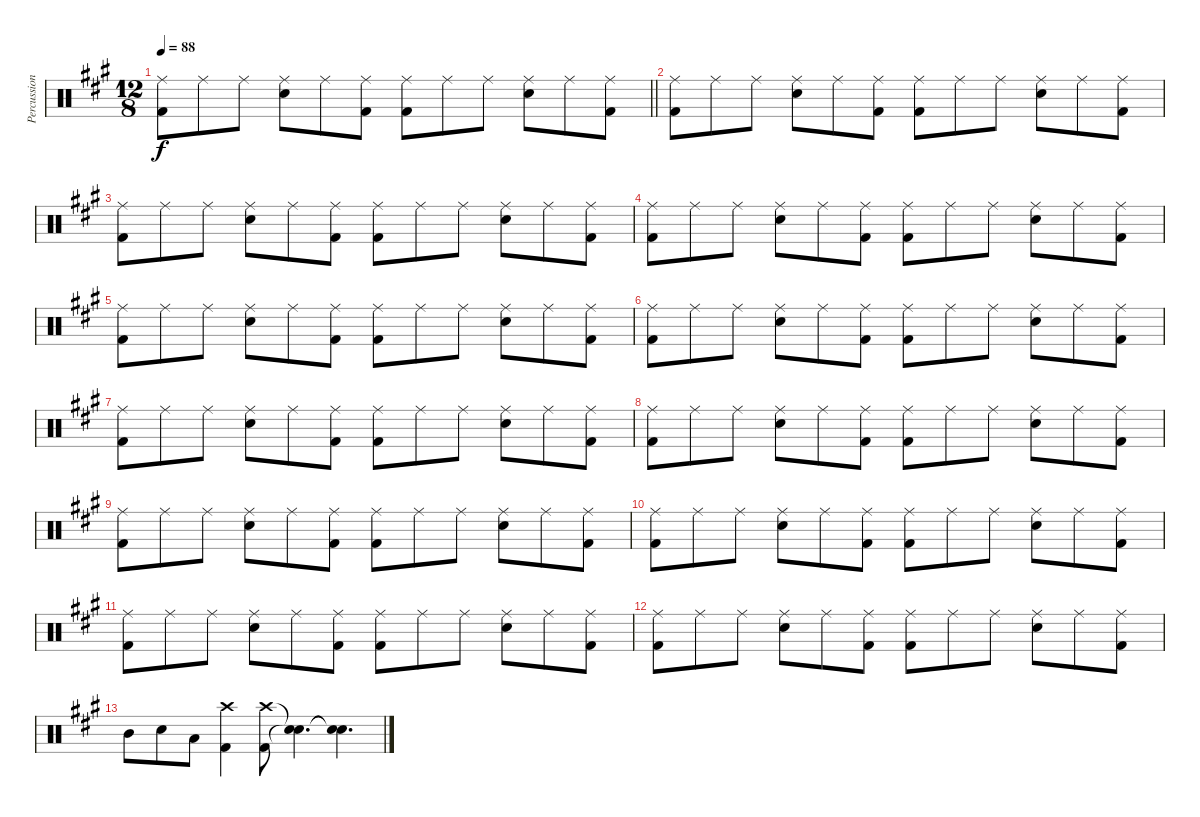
\track ("Percussion" "Percussion") {instrument percussion}
\staff {score}
\articulation defaults
\ts (12 8)
\tempo 88
\clef neutral
\barLineRight lightlight
\ks a
("Ride (middle)" "Kick (hit) 2").8{dy f} "Ride (middle)".8 "Ride (middle)".8 ("Ride (middle)" "Snare (hit) 2").8 "Ride (middle)".8 ("Ride (middle)" "Kick (hit) 2").8 ("Ride (middle)" "Kick (hit) 2").8 "Ride (middle)".8 "Ride (middle)".8 ("Ride (middle)" "Snare (hit) 2").8 "Ride (middle)".8 ("Ride (middle)" "Kick (hit) 2").8 |
("Ride (middle)" "Kick (hit) 2").8 "Ride (middle)".8 "Ride (middle)".8 ("Ride (middle)" "Snare (hit) 2").8 "Ride (middle)".8 ("Ride (middle)" "Kick (hit) 2").8 ("Ride (middle)" "Kick (hit) 2").8 "Ride (middle)".8 "Ride (middle)".8 ("Ride (middle)" "Snare (hit) 2").8 "Ride (middle)".8 ("Ride (middle)" "Kick (hit) 2").8 |
("Ride (middle)" "Kick (hit) 2").8 "Ride (middle)".8 "Ride (middle)".8 ("Ride (middle)" "Snare (hit) 2").8 "Ride (middle)".8 ("Ride (middle)" "Kick (hit) 2").8 ("Ride (middle)" "Kick (hit) 2").8 "Ride (middle)".8 "Ride (middle)".8 ("Ride (middle)" "Snare (hit) 2").8 "Ride (middle)".8 ("Ride (middle)" "Kick (hit) 2").8 |
("Ride (middle)" "Kick (hit) 2").8 "Ride (middle)".8 "Ride (middle)".8 ("Ride (middle)" "Snare (hit) 2").8 "Ride (middle)".8 ("Ride (middle)" "Kick (hit) 2").8 ("Ride (middle)" "Kick (hit) 2").8 "Ride (middle)".8 "Ride (middle)".8 ("Ride (middle)" "Snare (hit) 2").8 "Ride (middle)".8 ("Ride (middle)" "Kick (hit) 2").8 |
("Ride (middle)" "Kick (hit) 2").8 "Ride (middle)".8 "Ride (middle)".8 ("Ride (middle)" "Snare (hit) 2").8 "Ride (middle)".8 ("Ride (middle)" "Kick (hit) 2").8 ("Ride (middle)" "Kick (hit) 2").8 "Ride (middle)".8 "Ride (middle)".8 ("Ride (middle)" "Snare (hit) 2").8 "Ride (middle)".8 ("Ride (middle)" "Kick (hit) 2").8 |
("Ride (middle)" "Kick (hit) 2").8 "Ride (middle)".8 "Ride (middle)".8 ("Ride (middle)" "Snare (hit) 2").8 "Ride (middle)".8 ("Ride (middle)" "Kick (hit) 2").8 ("Ride (middle)" "Kick (hit) 2").8 "Ride (middle)".8 "Ride (middle)".8 ("Ride (middle)" "Snare (hit) 2").8 "Ride (middle)".8 ("Ride (middle)" "Kick (hit) 2").8 |
("Ride (middle)" "Kick (hit) 2").8 "Ride (middle)".8 "Ride (middle)".8 ("Ride (middle)" "Snare (hit) 2").8 "Ride (middle)".8 ("Ride (middle)" "Kick (hit) 2").8 ("Ride (middle)" "Kick (hit) 2").8 "Ride (middle)".8 "Ride (middle)".8 ("Ride (middle)" "Snare (hit) 2").8 "Ride (middle)".8 ("Ride (middle)" "Kick (hit) 2").8 |
("Ride (middle)" "Kick (hit) 2").8 "Ride (middle)".8 "Ride (middle)".8 ("Ride (middle)" "Snare (hit) 2").8 "Ride (middle)".8 ("Ride (middle)" "Kick (hit) 2").8 ("Ride (middle)" "Kick (hit) 2").8 "Ride (middle)".8 "Ride (middle)".8 ("Ride (middle)" "Snare (hit) 2").8 "Ride (middle)".8 ("Ride (middle)" "Kick (hit) 2").8 |
("Ride (middle)" "Kick (hit) 2").8 "Ride (middle)".8 "Ride (middle)".8 ("Ride (middle)" "Snare (hit) 2").8 "Ride (middle)".8 ("Ride (middle)" "Kick (hit) 2").8 ("Ride (middle)" "Kick (hit) 2").8 "Ride (middle)".8 "Ride (middle)".8 ("Ride (middle)" "Snare (hit) 2").8 "Ride (middle)".8 ("Ride (middle)" "Kick (hit) 2").8 |
("Ride (middle)" "Kick (hit) 2").8 "Ride (middle)".8 "Ride (middle)".8 ("Ride (middle)" "Snare (hit) 2").8 "Ride (middle)".8 ("Ride (middle)" "Kick (hit) 2").8 ("Ride (middle)" "Kick (hit) 2").8 "Ride (middle)".8 "Ride (middle)".8 ("Ride (middle)" "Snare (hit) 2").8 "Ride (middle)".8 ("Ride (middle)" "Kick (hit) 2").8 |
("Ride (middle)" "Kick (hit) 2").8 "Ride (middle)".8 "Ride (middle)".8 ("Ride (middle)" "Snare (hit) 2").8 "Ride (middle)".8 ("Ride (middle)" "Kick (hit) 2").8 ("Ride (middle)" "Kick (hit) 2").8 "Ride (middle)".8 "Ride (middle)".8 ("Ride (middle)" "Snare (hit) 2").8 "Ride (middle)".8 ("Ride (middle)" "Kick (hit) 2").8 |
("Ride (middle)" "Kick (hit) 2").8 "Ride (middle)".8 "Ride (middle)".8 ("Ride (middle)" "Snare (hit) 2").8 "Ride (middle)".8 ("Ride (middle)" "Kick (hit) 2").8 ("Ride (middle)" "Kick (hit) 2").8 "Ride (middle)".8 "Ride (middle)".8 ("Ride (middle)" "Snare (hit) 2").8 "Ride (middle)".8 ("Ride (middle)" "Kick (hit) 2").8 |
"Mid Tom (hit)".8 "Snare (hit) 2".8 "Low Floor Tom (hit)".8 ("Crash high (hit)" "Kick (hit) 2").4 ("Crash high (hit)" "Kick (hit) 2").8 ("Snare (hit)"{t} "Snare (hit)"{t}).4{d} ("Snare (hit)"{t} "Snare (hit)"{t}).4{d}
